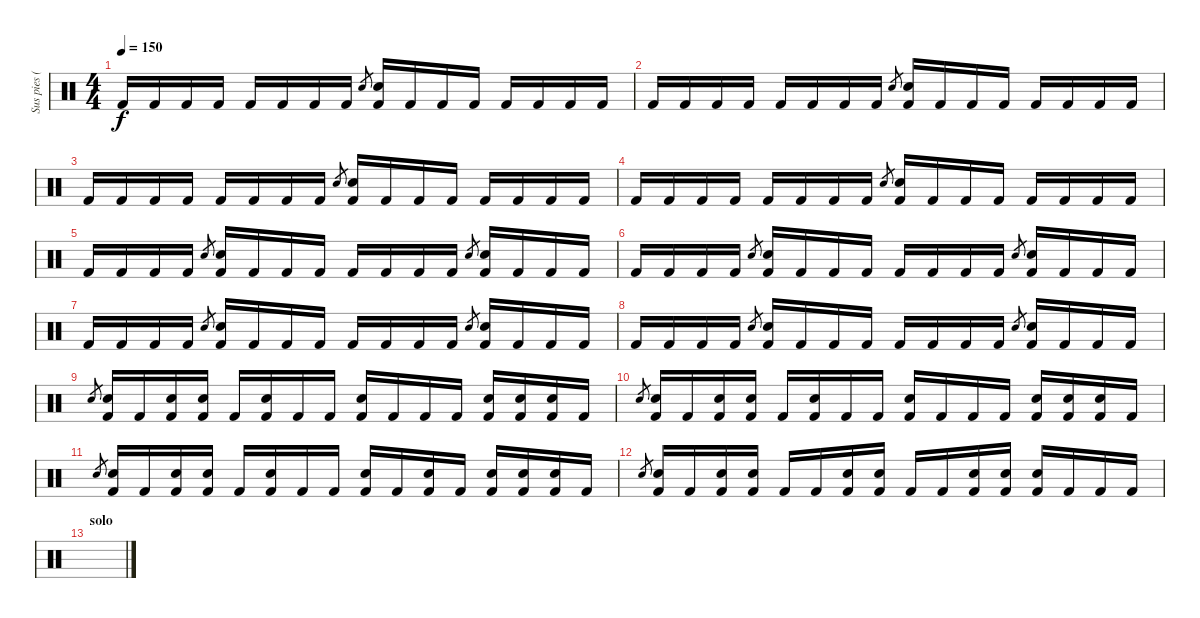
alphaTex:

\track ("Sus pies (a veces)" "Sus pies (") {instrument percussion}
\staff {score}
\articulation defaults
\ts (4 4)
\tempo 150
\clef neutral
\ks c "Kick (hit) 2".16{dy f} "Kick (hit) 2".16 "Kick (hit) 2".16 "Kick (hit) 2".16 "Kick (hit) 2".16 "Kick (hit) 2".16 "Kick (hit) 2".16 "Kick (hit) 2".16 "Electric Snare (hit)".8{gr}
("Electric Snare (hit)" "Kick (hit) 2").16 "Kick (hit) 2".16 "Kick (hit) 2".16 "Kick (hit) 2".16 "Kick (hit) 2".16 "Kick (hit) 2".16 "Kick (hit) 2".16 "Kick (hit) 2".16 |
"Kick (hit) 2".16 "Kick (hit) 2".16 "Kick (hit) 2".16 "Kick (hit) 2".16 "Kick (hit) 2".16 "Kick (hit) 2".16 "Kick (hit) 2".16 "Kick (hit) 2".16 "Electric Snare (hit)".8{gr} ("Electric Snare (hit)" "Kick (hit) 2").16 "Kick (hit) 2".16 "Kick (hit) 2".16 "Kick (hit) 2".16 "Kick (hit) 2".16 "Kick (hit) 2".16 "Kick (hit) 2".16 "Kick (hit) 2".16 |
"Kick (hit) 2".16 "Kick (hit) 2".16 "Kick (hit) 2".16 "Kick (hit) 2".16 "Kick (hit) 2".16 "Kick (hit) 2".16 "Kick (hit) 2".16 "Kick (hit) 2".16 "Electric Snare (hit)".8{gr} ("Electric Snare (hit)" "Kick (hit) 2").16 "Kick (hit) 2".16 "Kick (hit) 2".16 "Kick (hit) 2".16 "Kick (hit) 2".16 "Kick (hit) 2".16 "Kick (hit) 2".16 "Kick (hit) 2".16 |
"Kick (hit) 2".16 "Kick (hit) 2".16 "Kick (hit) 2".16 "Kick (hit) 2".16 "Kick (hit) 2".16 "Kick (hit) 2".16 "Kick (hit) 2".16 "Kick (hit) 2".16 "Electric Snare (hit)".8{gr} ("Electric Snare (hit)" "Kick (hit) 2").16 "Kick (hit) 2".16 "Kick (hit) 2".16 "Kick (hit) 2".16 "Kick (hit) 2".16 "Kick (hit) 2".16 "Kick (hit) 2".16 "Kick (hit) 2".16 |
"Kick (hit) 2".16 "Kick (hit) 2".16 "Kick (hit) 2".16 "Kick (hit) 2".16 "Electric Snare (hit)".8{gr} ("Electric Snare (hit)" "Kick (hit) 2").16 "Kick (hit) 2".16 "Kick (hit) 2".16 "Kick (hit) 2".16 "Kick (hit) 2".16 "Kick (hit) 2".16 "Kick (hit) 2".16 "Kick (hit) 2".16 "Electric Snare (hit)".8{gr} ("Electric Snare (hit)" "Kick (hit) 2").16 "Kick (hit) 2".16 "Kick (hit) 2".16 "Kick (hit) 2".16 |
"Kick (hit) 2".16 "Kick (hit) 2".16 "Kick (hit) 2".16 "Kick (hit) 2".16 "Electric Snare (hit)".8{gr} ("Electric Snare (hit)" "Kick (hit) 2").16 "Kick (hit) 2".16 "Kick (hit) 2".16 "Kick (hit) 2".16 "Kick (hit) 2".16 "Kick (hit) 2".16 "Kick (hit) 2".16 "Kick (hit) 2".16 "Electric Snare (hit)".8{gr} ("Electric Snare (hit)" "Kick (hit) 2").16 "Kick (hit) 2".16 "Kick (hit) 2".16 "Kick (hit) 2".16 |
"Kick (hit) 2".16 "Kick (hit) 2".16 "Kick (hit) 2".16 "Kick (hit) 2".16 "Electric Snare (hit)".8{gr} ("Electric Snare (hit)" "Kick (hit) 2").16 "Kick (hit) 2".16 "Kick (hit) 2".16 "Kick (hit) 2".16 "Kick (hit) 2".16 "Kick (hit) 2".16 "Kick (hit) 2".16 "Kick (hit) 2".16 "Electric Snare (hit)".8{gr} ("Electric Snare (hit)" "Kick (hit) 2").16 "Kick (hit) 2".16 "Kick (hit) 2".16 "Kick (hit) 2".16 |
"Kick (hit) 2".16 "Kick (hit) 2".16 "Kick (hit) 2".16 "Kick (hit) 2".16 "Electric Snare (hit)".8{gr} ("Electric Snare (hit)" "Kick (hit) 2").16 "Kick (hit) 2".16 "Kick (hit) 2".16 "Kick (hit) 2".16 "Kick (hit) 2".16 "Kick (hit) 2".16 "Kick (hit) 2".16 "Kick (hit) 2".16 "Electric Snare (hit)".8{gr} ("Electric Snare (hit)" "Kick (hit) 2").16 "Kick (hit) 2".16 "Kick (hit) 2".16 "Kick (hit) 2".16 |
"Electric Snare (hit)".8{gr} ("Electric Snare (hit)" "Kick (hit) 2").16 "Kick (hit) 2".16 ("Electric Snare (hit)" "Kick (hit) 2").16 ("Electric Snare (hit)" "Kick (hit) 2").16 "Kick (hit) 2".16 ("Electric Snare (hit)" "Kick (hit) 2").16 "Kick (hit) 2".16 "Kick (hit) 2".16 ("Electric Snare (hit)" "Kick (hit) 2").16 "Kick (hit) 2".16 "Kick (hit) 2".16 "Kick (hit) 2".16 ("Electric Snare (hit)" "Kick (hit) 2").16 ("Electric Snare (hit)" "Kick (hit) 2").16 ("Electric Snare (hit)" "Kick (hit) 2").16 "Kick (hit) 2".16 |
"Electric Snare (hit)".8{gr} ("Electric Snare (hit)" "Kick (hit) 2").16 "Kick (hit) 2".16 ("Electric Snare (hit)" "Kick (hit) 2").16 ("Electric Snare (hit)" "Kick (hit) 2").16 "Kick (hit) 2".16 ("Electric Snare (hit)" "Kick (hit) 2").16 "Kick (hit) 2".16 "Kick (hit) 2".16 ("Electric Snare (hit)" "Kick (hit) 2").16 "Kick (hit) 2".16 "Kick (hit) 2".16 "Kick (hit) 2".16 ("Electric Snare (hit)" "Kick (hit) 2").16 ("Electric Snare (hit)" "Kick (hit) 2").16 ("Electric Snare (hit)" "Kick (hit) 2").16 "Kick (hit) 2".16 |
"Electric Snare (hit)".8{gr} ("Electric Snare (hit)" "Kick (hit) 2").16 "Kick (hit) 2".16 ("Electric Snare (hit)" "Kick (hit) 2").16 ("Electric Snare (hit)" "Kick (hit) 2").16 "Kick (hit) 2".16 ("Electric Snare (hit)" "Kick (hit) 2").16 "Kick (hit) 2".16 "Kick (hit) 2".16 ("Electric Snare (hit)" "Kick (hit) 2").16 "Kick (hit) 2".16 ("Electric Snare (hit)" "Kick (hit) 2").16 "Kick (hit) 2".16 ("Electric Snare (hit)" "Kick (hit) 2").16 ("Electric Snare (hit)" "Kick (hit) 2").16 ("Electric Snare (hit)" "Kick (hit) 2").16 "Kick (hit) 2".16 |
"Electric Snare (hit)".8{gr} ("Electric Snare (hit)" "Kick (hit) 2").16 "Kick (hit) 2".16 ("Electric Snare (hit)" "Kick (hit) 2").16 ("Electric Snare (hit)" "Kick (hit) 2").16 "Kick (hit) 2".16 "Kick (hit) 2".16 ("Electric Snare (hit)" "Kick (hit) 2").16 ("Electric Snare (hit)" "Kick (hit) 2").16 "Kick (hit) 2".16 "Kick (hit) 2".16 ("Electric Snare (hit)" "Kick (hit) 2").16 ("Electric Snare (hit)" "Kick (hit) 2").16 ("Electric Snare (hit)" "Kick (hit) 2").16 "Kick (hit) 2".16 "Kick (hit) 2".16 "Kick (hit) 2".16 |
\section ("" "solo")
